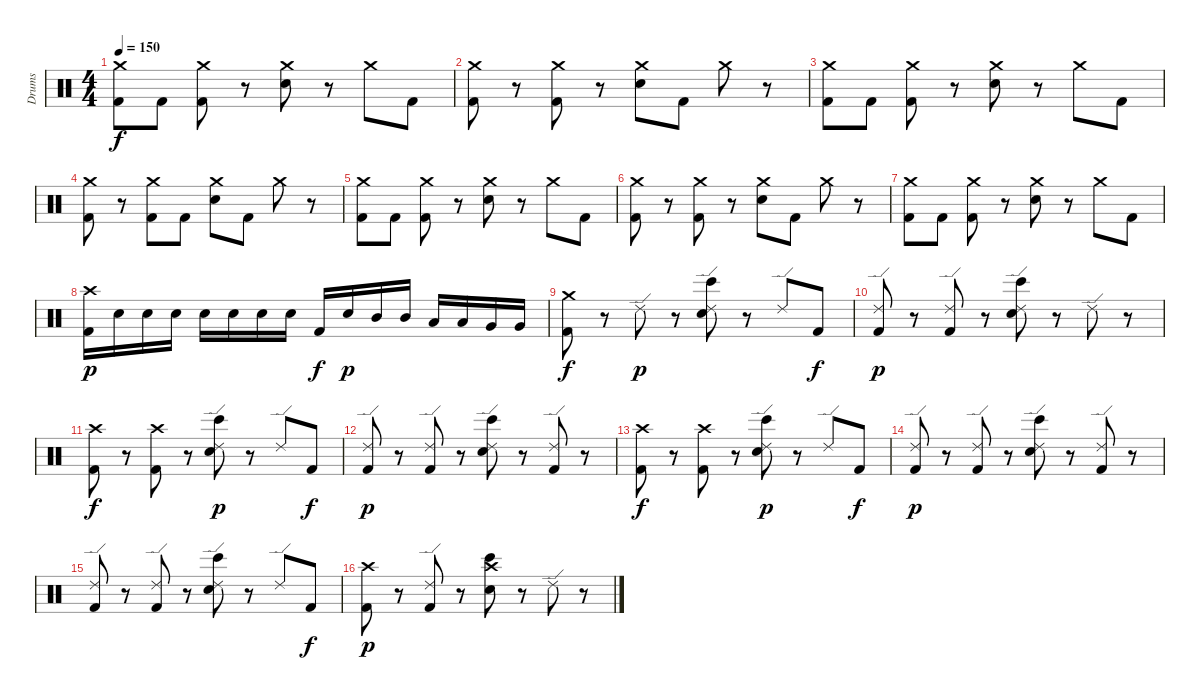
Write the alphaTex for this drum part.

\track ("Drums" "Drums") {instrument percussion}
\staff {score}
\articulation defaults
\ts (4 4)
\tempo 150
\clef neutral
\ks c
("Crash medium (hit)" "Kick (hit) 2").8{dy f} "Kick (hit) 2".8 ("Crash medium (hit)" "Kick (hit) 2").8 r.8 ("Crash medium (hit)" "Electric Snare (hit)").8 r.8 "Crash medium (hit)".8 "Kick (hit) 2".8 |
("Crash medium (hit)" "Kick (hit) 2").8 r.8 ("Crash medium (hit)" "Kick (hit) 2").8 r.8 ("Crash medium (hit)" "Electric Snare (hit)").8 "Kick (hit) 2".8 "Crash medium (hit)".8 r.8 |
("Crash medium (hit)" "Kick (hit) 2").8 "Kick (hit) 2".8 ("Crash medium (hit)" "Kick (hit) 2").8 r.8 ("Crash medium (hit)" "Electric Snare (hit)").8 r.8 "Crash medium (hit)".8 "Kick (hit) 2".8 |
("Crash medium (hit)" "Kick (hit) 2").8 r.8 ("Crash medium (hit)" "Kick (hit) 2").8 "Kick (hit) 2".8 ("Crash medium (hit)" "Electric Snare (hit)").8 "Kick (hit) 2".8 "Crash medium (hit)".8 r.8 |
("Crash medium (hit)" "Kick (hit) 2").8 "Kick (hit) 2".8 ("Crash medium (hit)" "Kick (hit) 2").8 r.8 ("Crash medium (hit)" "Electric Snare (hit)").8 r.8 "Crash medium (hit)".8 "Kick (hit) 2".8 |
("Crash medium (hit)" "Kick (hit) 2").8 r.8 ("Crash medium (hit)" "Kick (hit) 2").8 r.8 ("Crash medium (hit)" "Electric Snare (hit)").8 "Kick (hit) 2".8 "Crash medium (hit)".8 r.8 |
("Crash medium (hit)" "Kick (hit) 2").8 "Kick (hit) 2".8 ("Crash medium (hit)" "Kick (hit) 2").8 r.8 ("Crash medium (hit)" "Electric Snare (hit)").8 r.8 "Crash medium (hit)".8 "Kick (hit) 2".8 |
("Crash high (hit)" "Kick (hit) 2").16{dy p} "Electric Snare (hit)".16 "Electric Snare (hit)".16 "Electric Snare (hit)".16 "Electric Snare (hit)".16 "Electric Snare (hit)".16 "Electric Snare (hit)".16 "Electric Snare (hit)".16 "Kick (hit) 2".16{dy f} "Electric Snare (hit)".16{dy p} "Mid Tom (hit)".16 "Mid Tom (hit)".16 "Low Tom (hit)".16 "Low Tom (hit)".16 "Very Low Tom (hit)".16 "Very Low Tom (hit)".16 |
("Crash medium (hit)" "Kick (hit) 2").8{dy f} r.8 "Ride (edge) 2".8{dy p} r.8 ("Ride (edge) 2" "Bongo High (hit)" "Electric Snare (hit)").8 r.8 "Ride (edge) 2".8 "Kick (hit) 2".8{dy f} |
("Ride (edge) 2" "Kick (hit) 2").8{dy p} r.8 ("Ride (edge) 2" "Kick (hit) 2").8 r.8 ("Ride (edge) 2" "Bongo High (hit)" "Electric Snare (hit)").8 r.8 "Ride (edge) 2".8 r.8 |
("Crash high (hit)" "Kick (hit) 2").8{dy f} r.8 ("Crash high (hit)" "Kick (hit) 2").8 r.8 ("Ride (edge) 2" "Bongo High (hit)" "Electric Snare (hit)").8{dy p} r.8 "Ride (edge) 2".8 "Kick (hit) 2".8{dy f} |
("Ride (edge) 2" "Kick (hit) 2").8{dy p} r.8 ("Ride (edge) 2" "Kick (hit) 2").8 r.8 ("Ride (edge) 2" "Bongo High (hit)" "Electric Snare (hit)").8 r.8 ("Ride (edge) 2" "Kick (hit) 2").8 r.8 |
("Crash high (hit)" "Kick (hit) 2").8{dy f} r.8 ("Crash high (hit)" "Kick (hit) 2").8 r.8 ("Ride (edge) 2" "Bongo High (hit)" "Electric Snare (hit)").8{dy p} r.8 "Ride (edge) 2".8 "Kick (hit) 2".8{dy f} |
("Ride (edge) 2" "Kick (hit) 2").8{dy p} r.8 ("Ride (edge) 2" "Kick (hit) 2").8 r.8 ("Ride (edge) 2" "Bongo High (hit)" "Electric Snare (hit)").8 r.8 ("Ride (edge) 2" "Kick (hit) 2").8 r.8 |
("Ride (edge) 2" "Kick (hit) 2").8 r.8 ("Ride (edge) 2" "Kick (hit) 2").8 r.8 ("Ride (edge) 2" "Bongo High (hit)" "Electric Snare (hit)").8 r.8 "Ride (edge) 2".8 "Kick (hit) 2".8{dy f} |
("Crash high (hit)" "Kick (hit) 2").8{dy p} r.8 ("Ride (edge) 2" "Kick (hit) 2").8 r.8 ("Crash high (hit)" "Bongo High (hit)" "Electric Snare (hit)").8 r.8 "Ride (edge) 2".8 r.8
